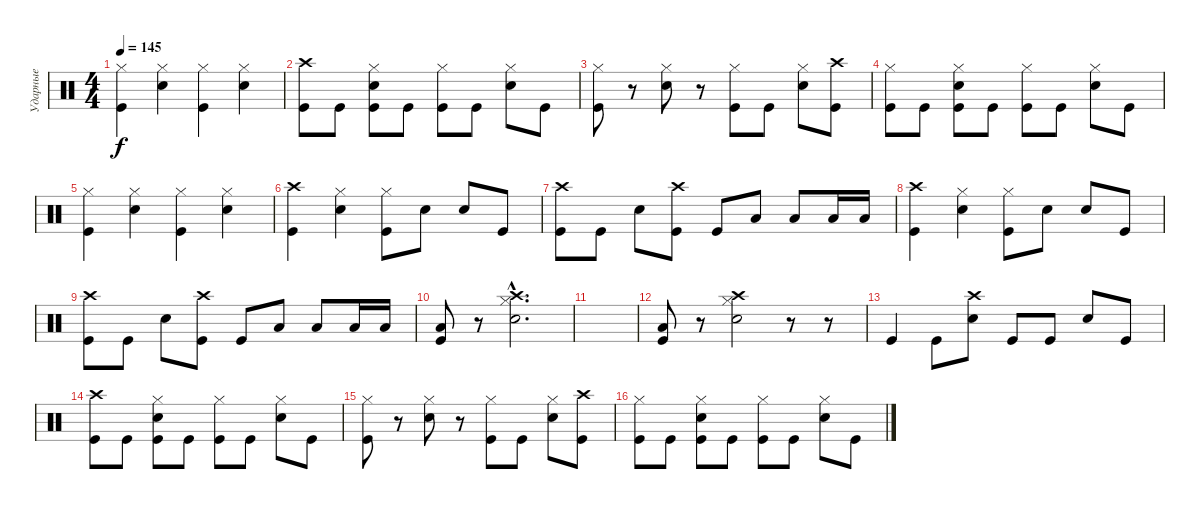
\track ("Ударные" "Ударные") {instrument percussion}
\staff {score}
\articulation defaults
\ts (4 4)
\tempo 145
\clef neutral
\ks c
("Hi-Hat (closed)" "Kick (hit)").4{dy f} ("Hi-Hat (closed)" "Electric Snare (hit)").4 ("Hi-Hat (closed)" "Kick (hit)").4 ("Hi-Hat (closed)" "Electric Snare (hit)").4 |
("Crash high (hit)" "Kick (hit)").8 "Kick (hit)".8 ("Hi-Hat (closed)" "Electric Snare (hit)" "Kick (hit)").8 "Kick (hit)".8 ("Hi-Hat (closed)" "Kick (hit)").8 "Kick (hit)".8 ("Hi-Hat (closed)" "Electric Snare (hit)").8 "Kick (hit)".8 |
("Hi-Hat (closed)" "Kick (hit)").8 r.8 ("Hi-Hat (closed)" "Electric Snare (hit)").8 r.8 ("Hi-Hat (closed)" "Kick (hit)").8 "Kick (hit)".8 ("Hi-Hat (closed)" "Electric Snare (hit)").8 ("Crash high (hit)" "Kick (hit)").8 |
("Hi-Hat (closed)" "Kick (hit)").8 "Kick (hit)".8 ("Hi-Hat (closed)" "Electric Snare (hit)" "Kick (hit)").8 "Kick (hit)".8 ("Hi-Hat (closed)" "Kick (hit)").8 "Kick (hit)".8 ("Hi-Hat (closed)" "Electric Snare (hit)").8 "Kick (hit)".8 |
("Hi-Hat (closed)" "Kick (hit)").4 ("Hi-Hat (closed)" "Electric Snare (hit)").4 ("Hi-Hat (closed)" "Kick (hit)").4 ("Hi-Hat (closed)" "Electric Snare (hit)").4 |
("Crash high (hit)" "Kick (hit)").4 ("Hi-Hat (closed)" "Electric Snare (hit)").4 ("Hi-Hat (closed)" "Kick (hit)").8 "Electric Snare (hit)".8 "Electric Snare (hit)".8 "Kick (hit)".8 |
("Crash high (hit)" "Kick (hit)").8 "Kick (hit)".8 "Electric Snare (hit)".8 ("Crash high (hit)" "Kick (hit)").8 "Kick (hit)".8 "Low Tom (hit)".8 "Low Tom (hit)".8 "Low Tom (hit)".16 "Low Tom (hit)".16 |
("Crash high (hit)" "Kick (hit)").4 ("Hi-Hat (closed)" "Electric Snare (hit)").4 ("Hi-Hat (closed)" "Kick (hit)").8 "Electric Snare (hit)".8 "Electric Snare (hit)".8 "Kick (hit)".8 |
("Crash high (hit)" "Kick (hit)").8 "Kick (hit)".8 "Electric Snare (hit)".8 ("Crash high (hit)" "Kick (hit)").8 "Kick (hit)".8 "Low Tom (hit)".8 "Low Tom (hit)".8 "Low Tom (hit)".16 "Low Tom (hit)".16 |
("Low Tom (hit)" "Kick (hit)").8 r.8 ("Crash high (hit)"{hac} "Hi-Hat (closed)"{hac} "Electric Snare (hit)"{hac}).2{d} |
|
("Low Tom (hit)" "Kick (hit)").8 r.8 ("Crash high (hit)" "Hi-Hat (closed)" "Electric Snare (hit)").2 r.8 r.8 |
"Kick (hit)".4 "Kick (hit)".8 ("Crash high (hit)" "Electric Snare (hit)").8 "Kick (hit)".8 "Kick (hit)".8 "Electric Snare (hit)".8 "Kick (hit)".8 |
("Crash high (hit)" "Kick (hit)").8 "Kick (hit)".8 ("Hi-Hat (closed)" "Electric Snare (hit)" "Kick (hit)").8 "Kick (hit)".8 ("Hi-Hat (closed)" "Kick (hit)").8 "Kick (hit)".8 ("Hi-Hat (closed)" "Electric Snare (hit)").8 "Kick (hit)".8 |
("Hi-Hat (closed)" "Kick (hit)").8 r.8 ("Hi-Hat (closed)" "Electric Snare (hit)").8 r.8 ("Hi-Hat (closed)" "Kick (hit)").8 "Kick (hit)".8 ("Hi-Hat (closed)" "Electric Snare (hit)").8 ("Crash high (hit)" "Kick (hit)").8 |
("Hi-Hat (closed)" "Kick (hit)").8 "Kick (hit)".8 ("Hi-Hat (closed)" "Electric Snare (hit)" "Kick (hit)").8 "Kick (hit)".8 ("Hi-Hat (closed)" "Kick (hit)").8 "Kick (hit)".8 ("Hi-Hat (closed)" "Electric Snare (hit)").8 "Kick (hit)".8
